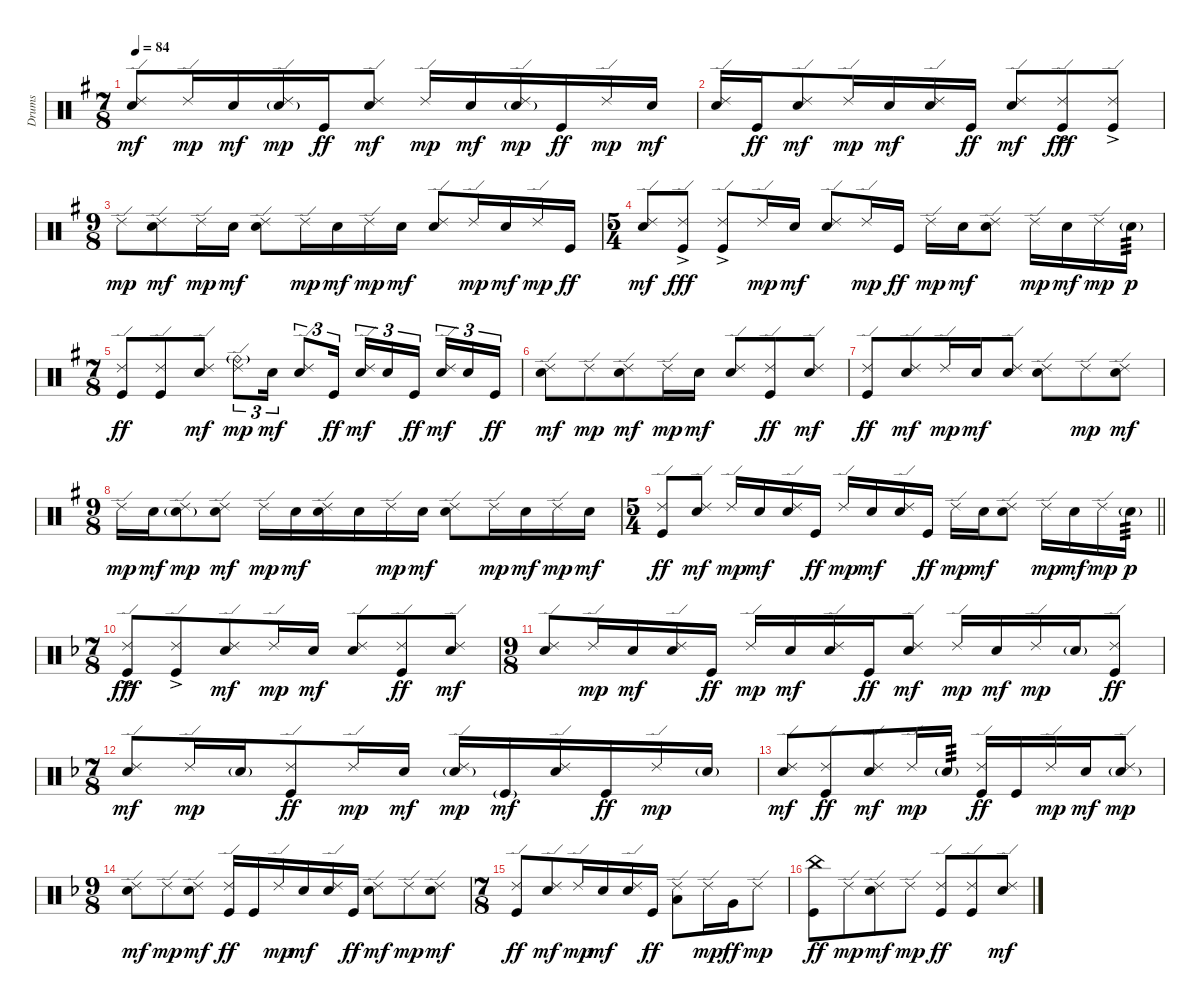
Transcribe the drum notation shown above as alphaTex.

\track ("Drums" "Drums") {instrument percussion}
\staff {score}
\articulation defaults
\ts (7 8)
\tempo 84
\clef neutral
\ks eminor
("Ride (edge) 2" "Electric Snare (hit)").8{dy mf} "Ride (edge) 2".16{dy mp} "Electric Snare (hit)".16{dy mf} ("Ride (edge) 2" "Electric Snare (hit)"{g}).16{dy mp} "Kick (hit)".16{dy ff} ("Ride (edge) 2" "Electric Snare (hit)").8{dy mf} "Ride (edge) 2".16{dy mp} "Electric Snare (hit)".16{dy mf} ("Ride (edge) 2" "Electric Snare (hit)"{g}).16{dy mp} "Kick (hit)".16{dy ff} "Ride (edge) 2".16{dy mp} "Electric Snare (hit)".16{dy mf} |
("Ride (edge) 2" "Electric Snare (hit)").16 "Kick (hit)".16{dy ff} ("Ride (edge) 2" "Electric Snare (hit)").8{dy mf} "Ride (edge) 2".16{dy mp} "Electric Snare (hit)".16{dy mf} ("Ride (edge) 2" "Electric Snare (hit)").16 "Kick (hit)".16{dy ff} ("Ride (edge) 2" "Electric Snare (hit)").8{dy mf} ("Ride (edge) 2"{ac} "Kick (hit)"{ac}).8{dy fff} ("Ride (edge) 2"{ac} "Kick (hit)"{ac}).8 |
\ts (9 8)
"Ride (edge) 2".8{dy mp} ("Ride (edge) 2" "Electric Snare (hit)").8{dy mf} "Ride (edge) 2".16{dy mp} "Electric Snare (hit)".16{dy mf} ("Ride (edge) 2" "Electric Snare (hit)").8 "Ride (edge) 2".16{dy mp} "Electric Snare (hit)".16{dy mf} "Ride (edge) 2".16{dy mp} "Electric Snare (hit)".16{dy mf} ("Ride (edge) 2" "Electric Snare (hit)").8 "Ride (edge) 2".16{dy mp} "Electric Snare (hit)".16{dy mf} "Ride (edge) 2".16{dy mp} "Kick (hit)".16{dy ff} |
\ts (5 4)
("Ride (edge) 2" "Electric Snare (hit)").8{dy mf} ("Ride (edge) 2" "Kick (hit)"{ac}).8{dy fff} ("Ride (edge) 2" "Kick (hit)"{ac}).8 "Ride (edge) 2".16{dy mp} "Electric Snare (hit)".16{dy mf} ("Ride (edge) 2" "Electric Snare (hit)").8 "Ride (edge) 2".16{dy mp} "Kick (hit)".16{dy ff} "Ride (edge) 2".16{dy mp} "Electric Snare (hit)".16{dy mf} ("Ride (edge) 2" "Electric Snare (hit)").8 "Ride (edge) 2".16{dy mp} "Electric Snare (hit)".16{dy mf} "Ride (edge) 2".16{dy mp} "Electric Snare (hit)"{g}.16{tp 3 dy p} |
\ts (7 8)
("Ride (edge) 2" "Kick (hit)").8{dy ff} ("Ride (edge) 2" "Kick (hit)").8 ("Ride (edge) 2" "Electric Snare (hit)").8{dy mf} ("Ride (edge) 2" "Ride (bell)"{g}).8{tu (3 2) dy mp} "Electric Snare (hit)".16{tu (3 2) dy mf} ("Ride (edge) 2" "Electric Snare (hit)").8{tu (3 2)} "Kick (hit)".16{tu (3 2) dy ff} ("Ride (edge) 2" "Electric Snare (hit)").16{tu (3 2) dy mf} "Electric Snare (hit)".16{tu (3 2)} "Kick (hit)".16{tu (3 2) dy ff} ("Ride (edge) 2" "Electric Snare (hit)").16{tu (3 2) dy mf} "Electric Snare (hit)".16{tu (3 2)} "Kick (hit)".16{tu (3 2) dy ff} |
("Ride (edge) 2" "Electric Snare (hit)").8{dy mf} "Ride (edge) 2".8{dy mp} ("Ride (edge) 2" "Electric Snare (hit)").8{dy mf} "Ride (edge) 2".16{dy mp} "Electric Snare (hit)".16{dy mf} ("Ride (edge) 2" "Electric Snare (hit)").8 ("Ride (edge) 2" "Kick (hit)").8{dy ff} ("Ride (edge) 2" "Electric Snare (hit)").8{dy mf} |
("Ride (edge) 2" "Kick (hit)").8{dy ff} ("Ride (edge) 2" "Electric Snare (hit)").8{dy mf} "Ride (edge) 2".16{dy mp} "Electric Snare (hit)".16{dy mf} ("Ride (edge) 2" "Electric Snare (hit)").8 ("Ride (edge) 2" "Electric Snare (hit)").8 "Ride (edge) 2".8{dy mp} ("Ride (edge) 2" "Electric Snare (hit)").8{dy mf} |
\ts (9 8)
"Ride (edge) 2".16{dy mp} "Electric Snare (hit)".16{dy mf} ("Ride (edge) 2" "Electric Snare (hit)"{g}).8{dy mp} ("Ride (edge) 2" "Electric Snare (hit)").8{dy mf} "Ride (edge) 2".16{dy mp} "Electric Snare (hit)".16{dy mf} ("Ride (edge) 2" "Electric Snare (hit)").16 "Electric Snare (hit)".16 "Ride (edge) 2".16{dy mp} "Electric Snare (hit)".16{dy mf} ("Ride (edge) 2" "Electric Snare (hit)").8 "Ride (edge) 2".16{dy mp} "Electric Snare (hit)".16{dy mf} "Ride (edge) 2".16{dy mp} "Electric Snare (hit)".16{dy mf} |
\ts (5 4)
\barLineRight lightlight
("Ride (edge) 2" "Kick (hit)").8{dy ff} ("Ride (edge) 2" "Electric Snare (hit)").8{dy mf} "Ride (edge) 2".16{dy mp} "Electric Snare (hit)".16{dy mf} ("Ride (edge) 2" "Electric Snare (hit)").16 "Kick (hit)".16{dy ff} "Ride (edge) 2".16{dy mp} "Electric Snare (hit)".16{dy mf} ("Ride (edge) 2" "Electric Snare (hit)").16 "Kick (hit)".16{dy ff} "Ride (edge) 2".16{dy mp} "Electric Snare (hit)".16{dy mf} ("Ride (edge) 2" "Electric Snare (hit)").8 "Ride (edge) 2".16{dy mp} "Electric Snare (hit)".16{dy mf} "Ride (edge) 2".16{dy mp} "Electric Snare (hit)"{g}.16{tp 3 dy p} |
\ts (7 8)
\ks dminor
("Ride (edge) 2"{ac} "Kick (hit)"{ac}).8{dy fff} ("Ride (edge) 2" "Kick (hit)"{ac}).8 ("Ride (edge) 2" "Electric Snare (hit)").8{dy mf} "Ride (edge) 2".16{dy mp} "Electric Snare (hit)".16{dy mf} ("Ride (edge) 2" "Electric Snare (hit)").8 ("Ride (edge) 2" "Kick (hit)").8{dy ff} ("Ride (edge) 2" "Electric Snare (hit)").8{dy mf} |
\ts (9 8)
("Ride (edge) 2" "Electric Snare (hit)").8 "Ride (edge) 2".16{dy mp} "Electric Snare (hit)".16{dy mf} ("Ride (edge) 2" "Electric Snare (hit)").16 "Kick (hit)".16{dy ff} "Ride (edge) 2".16{dy mp} "Electric Snare (hit)".16{dy mf} ("Ride (edge) 2" "Electric Snare (hit)").16 "Kick (hit)".16{dy ff} ("Ride (edge) 2" "Electric Snare (hit)").8{dy mf} "Ride (edge) 2".16{dy mp} "Electric Snare (hit)".16{dy mf} "Ride (edge) 2".16{dy mp} "Electric Snare (hit)"{g}.16 ("Ride (edge) 2" "Kick (hit)").8{dy ff} |
\ts (7 8)
("Ride (edge) 2" "Electric Snare (hit)").8{dy mf} "Ride (edge) 2".16{dy mp} "Electric Snare (hit)"{g}.16 ("Ride (edge) 2" "Kick (hit)").8{dy ff} "Ride (edge) 2".16{dy mp} "Electric Snare (hit)".16{dy mf} ("Ride (edge) 2" "Electric Snare (hit)"{g}).16{dy mp} "Kick (hit)"{g}.16{dy mf} ("Ride (edge) 2" "Electric Snare (hit)").16 "Kick (hit)".16{dy ff} "Ride (edge) 2".16{dy mp} "Electric Snare (hit)"{g}.16 |
("Ride (edge) 2" "Electric Snare (hit)").8{dy mf} ("Ride (edge) 2" "Kick (hit)").8{dy ff} ("Ride (edge) 2" "Electric Snare (hit)").8{dy mf} "Ride (edge) 2".16{dy mp} "Electric Snare (hit)"{g}.16{tp 3} ("Ride (edge) 2" "Kick (hit)").16{dy ff} "Kick (hit)".16 "Ride (edge) 2".16{dy mp} "Electric Snare (hit)".16{dy mf} ("Ride (edge) 2" "Electric Snare (hit)"{g}).8{dy mp} |
\ts (9 8)
("Ride (edge) 2" "Electric Snare (hit)").8{dy mf} "Ride (edge) 2".8{dy mp} ("Ride (edge) 2" "Electric Snare (hit)").8{dy mf} ("Ride (edge) 2" "Kick (hit)").16{dy ff} "Kick (hit)".16 "Ride (edge) 2".16{dy mp} "Electric Snare (hit)".16{dy mf} ("Ride (edge) 2" "Electric Snare (hit)").16 "Kick (hit)".16{dy ff} ("Ride (edge) 2" "Electric Snare (hit)").8{dy mf} "Ride (edge) 2".8{dy mp} ("Ride (edge) 2" "Electric Snare (hit)").8{dy mf} |
\ts (7 8)
("Ride (edge) 2" "Kick (hit)").8{dy ff} ("Ride (edge) 2" "Electric Snare (hit)").8{dy mf} "Ride (edge) 2".16{dy mp} "Electric Snare (hit)".16{dy mf} ("Ride (edge) 2" "Electric Snare (hit)").16 "Kick (hit)".16{dy ff} ("Ride (edge) 2" "Low Tom (hit)").8 "Ride (edge) 2".16{dy mp} "Very Low Tom (hit)".16{dy ff} "Ride (edge) 2".8{dy mp} |
("China (hit)" "Kick (hit)").8{dy ff} "Ride (edge) 2".8{dy mp} ("Ride (edge) 2" "Electric Snare (hit)").8{dy mf} "Ride (edge) 2".8{dy mp} ("Ride (edge) 2" "Kick (hit)").8{dy ff} ("Ride (edge) 2" "Kick (hit)").8 ("Ride (edge) 2" "Electric Snare (hit)").8{dy mf}
